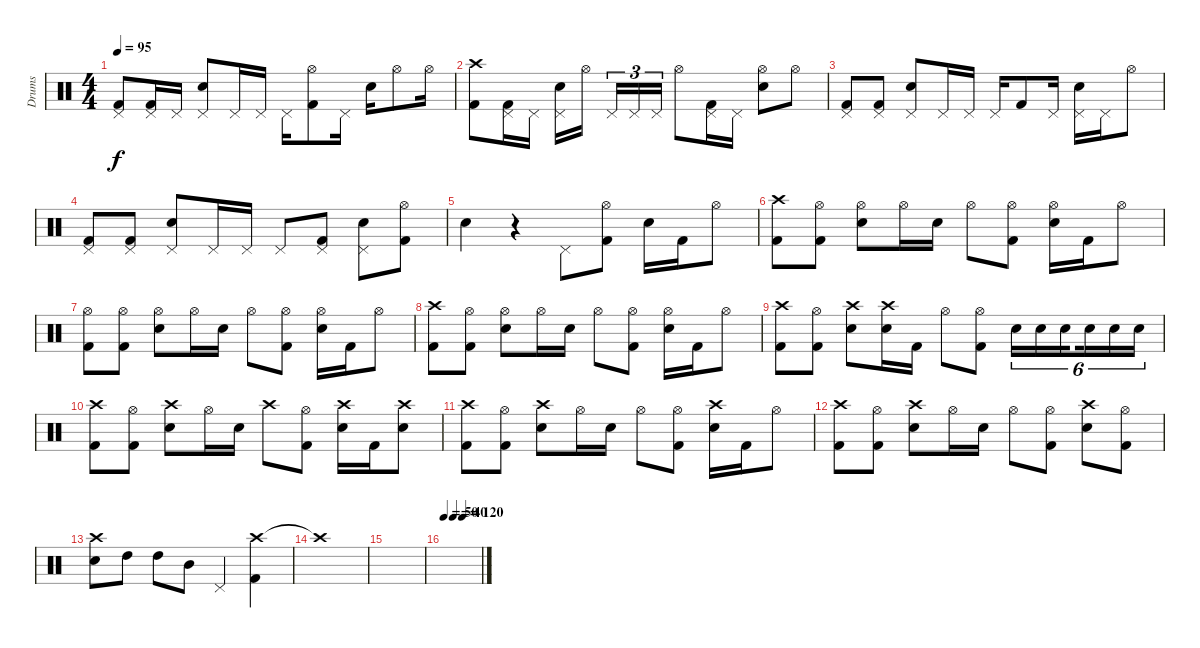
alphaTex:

\track ("Drums" "Drums") {instrument percussion}
\staff {score}
\articulation defaults
\ts (4 4)
\tempo 95
\clef neutral
\ks c
("Pedal Hi-Hat (hit)" "Kick (hit) 2").8{dy f} ("Pedal Hi-Hat (hit)" "Kick (hit) 2").16 "Pedal Hi-Hat (hit)".16 ("Pedal Hi-Hat (hit)" "Electric Snare (hit)").8 "Pedal Hi-Hat (hit)".16 "Pedal Hi-Hat (hit)".16 "Pedal Hi-Hat (hit)".16 ("Hi-Hat (open)" "Kick (hit) 2").8 "Pedal Hi-Hat (hit)".16 "Electric Snare (hit)".16 "Hi-Hat (open)".8 "Hi-Hat (open)".16 |
("Crash high (hit)" "Kick (hit) 2").8 ("Pedal Hi-Hat (hit)" "Kick (hit) 2").16 "Pedal Hi-Hat (hit)".16 ("Pedal Hi-Hat (hit)" "Electric Snare (hit)").16 "Hi-Hat (open)".16{beam splitsecondary} "Pedal Hi-Hat (hit)".16{tu (3 2)} "Pedal Hi-Hat (hit)".16{tu (3 2)} "Pedal Hi-Hat (hit)".16{tu (3 2)} "Hi-Hat (open)".8 ("Pedal Hi-Hat (hit)" "Kick (hit) 2").16 "Pedal Hi-Hat (hit)".16 ("Hi-Hat (open)" "Electric Snare (hit)").8 "Hi-Hat (open)".8 |
("Pedal Hi-Hat (hit)" "Kick (hit) 2").8 ("Pedal Hi-Hat (hit)" "Kick (hit) 2").8 ("Pedal Hi-Hat (hit)" "Electric Snare (hit)").8 "Pedal Hi-Hat (hit)".16 "Pedal Hi-Hat (hit)".16 "Pedal Hi-Hat (hit)".16 "Kick (hit) 2".8 "Pedal Hi-Hat (hit)".16 ("Pedal Hi-Hat (hit)" "Electric Snare (hit)").16 "Pedal Hi-Hat (hit)".16 "Hi-Hat (open)".8 |
("Pedal Hi-Hat (hit)" "Kick (hit) 2").8 ("Pedal Hi-Hat (hit)" "Kick (hit) 2").8 ("Pedal Hi-Hat (hit)" "Electric Snare (hit)").8 "Pedal Hi-Hat (hit)".16 "Pedal Hi-Hat (hit)".16 "Pedal Hi-Hat (hit)".8 ("Pedal Hi-Hat (hit)" "Kick (hit) 2").8 ("Pedal Hi-Hat (hit)" "Electric Snare (hit)").8 ("Hi-Hat (open)" "Kick (hit) 2").8 |
"Electric Snare (hit)".4 r.4 "Pedal Hi-Hat (hit)".8 ("Hi-Hat (open)" "Kick (hit) 2").8 "Electric Snare (hit)".16 "Kick (hit) 2".16 "Hi-Hat (open)".8 |
("Crash high (hit)" "Kick (hit) 2").8 ("Hi-Hat (open)" "Kick (hit) 2").8 ("Hi-Hat (open)" "Electric Snare (hit)").8 "Hi-Hat (open)".16 "Electric Snare (hit)".16 "Hi-Hat (open)".8 ("Hi-Hat (open)" "Kick (hit) 2").8 ("Hi-Hat (open)" "Electric Snare (hit)").16 "Kick (hit) 2".16 "Hi-Hat (open)".8 |
("Hi-Hat (open)" "Kick (hit) 2").8 ("Hi-Hat (open)" "Kick (hit) 2").8 ("Hi-Hat (open)" "Electric Snare (hit)").8 "Hi-Hat (open)".16 "Electric Snare (hit)".16 "Hi-Hat (open)".8 ("Hi-Hat (open)" "Kick (hit) 2").8 ("Hi-Hat (open)" "Electric Snare (hit)").16 "Kick (hit) 2".16 "Hi-Hat (open)".8 |
("Crash high (hit)" "Kick (hit) 2").8 ("Hi-Hat (open)" "Kick (hit) 2").8 ("Hi-Hat (open)" "Electric Snare (hit)").8 "Hi-Hat (open)".16 "Electric Snare (hit)".16 "Hi-Hat (open)".8 ("Hi-Hat (open)" "Kick (hit) 2").8 ("Hi-Hat (open)" "Electric Snare (hit)").16 "Kick (hit) 2".16 "Hi-Hat (open)".8 |
("Crash high (hit)" "Kick (hit) 2").8 ("Hi-Hat (open)" "Kick (hit) 2").8 ("Crash high (hit)" "Electric Snare (hit)").8 ("Crash high (hit)" "Electric Snare (hit)").16 "Kick (hit) 2".16 "Hi-Hat (open)".8 ("Hi-Hat (open)" "Kick (hit) 2").8 "Electric Snare (hit)".16{tu (6 4)} "Electric Snare (hit)".16{tu (6 4)} "Electric Snare (hit)".16{tu (6 4) beam splitsecondary} "Electric Snare (hit)".16{tu (6 4)} "Electric Snare (hit)".16{tu (6 4)} "Electric Snare (hit)".16{tu (6 4)} |
("Crash high (hit)" "Kick (hit) 2").8 ("Hi-Hat (open)" "Kick (hit) 2").8 ("Crash high (hit)" "Electric Snare (hit)").8 "Hi-Hat (open)".16 "Electric Snare (hit)".16 "Crash high (hit)".8 ("Hi-Hat (open)" "Kick (hit) 2").8 ("Crash high (hit)" "Electric Snare (hit)").16 "Kick (hit) 2".16 ("Crash high (hit)" "Electric Snare (hit)").8 |
("Crash high (hit)" "Kick (hit) 2").8 ("Hi-Hat (open)" "Kick (hit) 2").8 ("Crash high (hit)" "Electric Snare (hit)").8 "Hi-Hat (open)".16 "Electric Snare (hit)".16 "Hi-Hat (open)".8 ("Hi-Hat (open)" "Kick (hit) 2").8 ("Crash high (hit)" "Electric Snare (hit)").16 "Kick (hit) 2".16 "Hi-Hat (open)".8 |
("Crash high (hit)" "Kick (hit) 2").8 ("Hi-Hat (open)" "Kick (hit) 2").8 ("Crash high (hit)" "Electric Snare (hit)").8 "Hi-Hat (open)".16 "Electric Snare (hit)".16 "Hi-Hat (open)".8 ("Hi-Hat (open)" "Kick (hit) 2").8 ("Crash high (hit)" "Electric Snare (hit)").8 ("Hi-Hat (open)" "Kick (hit) 2").8 |
("Crash high (hit)" "Electric Snare (hit)").8 "High Tom (hit)".8 "High Tom (hit)".8 "Mid Tom (hit)".8 "Pedal Hi-Hat (hit)".4 ("Crash high (hit)" "Kick (hit) 2").4 |
"Crash high (hit)"{t}.1 |
|
\tempo 50
\tempo (40 0.25)
\tempo (120 0.5)
